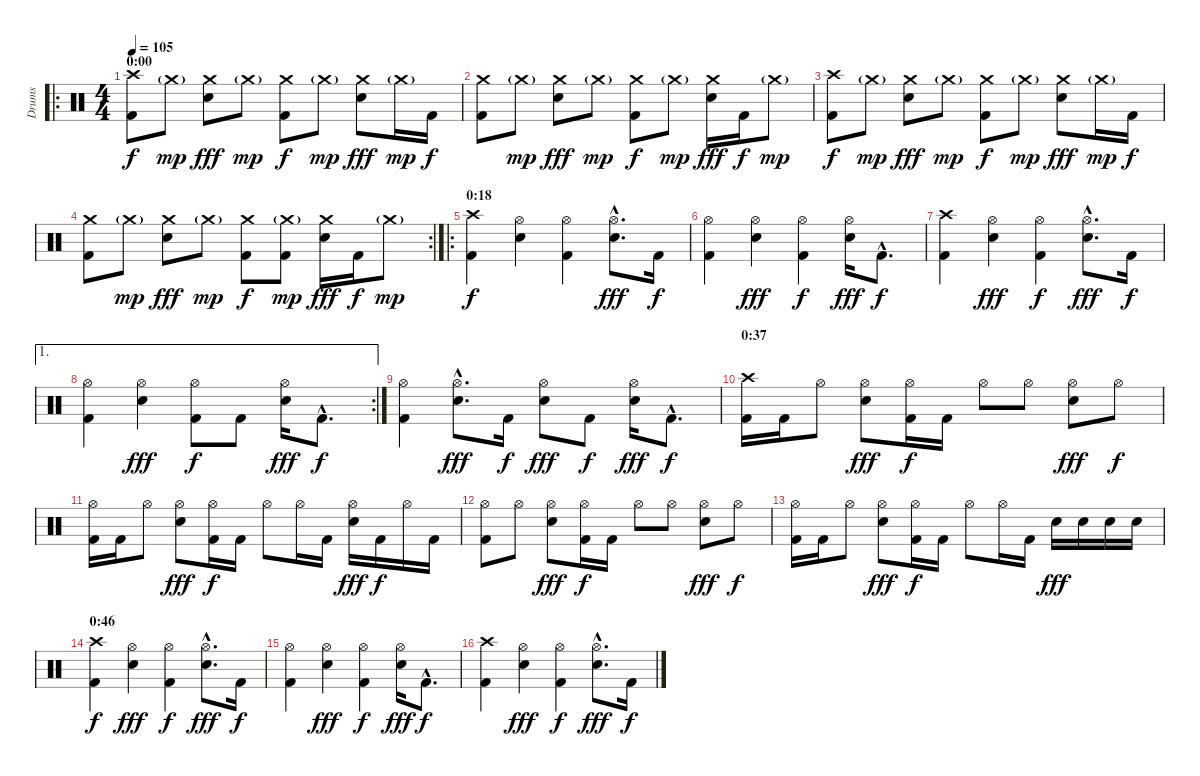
\track ("Drums" "Drums") {instrument percussion}
\staff {score}
\articulation defaults
\ro
\ts (4 4)
\section ("" "0:00")
\tempo 105
\clef neutral
\ks c
("Crash high (hit)" "Kick (hit) 2").8{dy f} "Crash medium (hit)"{g}.8{dy mp} ("Crash medium (hit)" "Snare (hit) 2").8{dy fff} "Crash medium (hit)"{g}.8{dy mp} ("Crash medium (hit)" "Kick (hit) 2").8{dy f} "Crash medium (hit)"{g}.8{dy mp} ("Crash medium (hit)" "Snare (hit) 2").8{dy fff} "Crash medium (hit)"{g}.16{dy mp} "Kick (hit) 2".16{dy f} |
("Crash medium (hit)" "Kick (hit) 2").8 "Crash medium (hit)"{g}.8{dy mp} ("Crash medium (hit)" "Snare (hit) 2").8{dy fff} "Crash medium (hit)"{g}.8{dy mp} ("Crash medium (hit)" "Kick (hit) 2").8{dy f} "Crash medium (hit)"{g}.8{dy mp} ("Crash medium (hit)" "Snare (hit) 2").16{dy fff} "Kick (hit) 2".16{dy f} "Crash medium (hit)"{g}.8{dy mp} |
("Crash high (hit)" "Kick (hit) 2").8{dy f} "Crash medium (hit)"{g}.8{dy mp} ("Crash medium (hit)" "Snare (hit) 2").8{dy fff} "Crash medium (hit)"{g}.8{dy mp} ("Crash medium (hit)" "Kick (hit) 2").8{dy f} "Crash medium (hit)"{g}.8{dy mp} ("Crash medium (hit)" "Snare (hit) 2").8{dy fff} "Crash medium (hit)"{g}.16{dy mp} "Kick (hit) 2".16{dy f} |
\rc 2
("Crash medium (hit)" "Kick (hit) 2").8 "Crash medium (hit)"{g}.8{dy mp} ("Crash medium (hit)" "Snare (hit) 2").8{dy fff} "Crash medium (hit)"{g}.8{dy mp} ("Crash medium (hit)" "Kick (hit) 2").8{dy f} ("Crash medium (hit)"{g} "Kick (hit) 2").8{dy mp} ("Crash medium (hit)" "Snare (hit) 2").16{dy fff} "Kick (hit) 2".16{dy f} "Crash medium (hit)"{g}.8{dy mp} |
\ro
\section ("" "0:18")
("Crash high (hit)" "Kick (hit) 2").4{dy f} ("Hi-Hat (open)" "Snare (hit) 2").4 ("Hi-Hat (open)" "Kick (hit) 2").4 ("Hi-Hat (open)"{hac} "Snare (hit) 2"{hac}).8{d dy fff} "Kick (hit) 2".16{dy f} |
("Hi-Hat (open)" "Kick (hit) 2").4 ("Hi-Hat (open)" "Snare (hit) 2").4{dy fff} ("Hi-Hat (open)" "Kick (hit) 2").4{dy f} ("Hi-Hat (open)" "Snare (hit) 2").16{dy fff} "Kick (hit) 2"{hac}.8{d dy f} |
("Crash high (hit)" "Kick (hit) 2").4 ("Hi-Hat (open)" "Snare (hit) 2").4{dy fff} ("Hi-Hat (open)" "Kick (hit) 2").4{dy f} ("Hi-Hat (open)"{hac} "Snare (hit) 2"{hac}).8{d dy fff} "Kick (hit) 2".16{dy f} |
\ae 1
\rc 2
("Hi-Hat (open)" "Kick (hit) 2").4 ("Hi-Hat (open)" "Snare (hit) 2").4{dy fff} ("Hi-Hat (open)" "Kick (hit) 2").8{dy f} "Kick (hit) 2".8 ("Hi-Hat (open)" "Snare (hit) 2").16{dy fff} "Kick (hit) 2"{hac}.8{d dy f} |
("Hi-Hat (open)" "Kick (hit) 2").4 ("Hi-Hat (open)"{hac} "Snare (hit) 2"{hac}).8{d dy fff} "Kick (hit) 2".16{dy f} ("Hi-Hat (open)" "Snare (hit) 2").8{dy fff} "Kick (hit) 2".8{dy f} ("Hi-Hat (open)" "Snare (hit) 2").16{dy fff} "Kick (hit) 2"{hac}.8{d dy f} |
\section ("" "0:37")
("Crash high (hit)" "Kick (hit) 2").16 "Kick (hit) 2".16 "Hi-Hat (open)".8 ("Hi-Hat (open)" "Snare (hit) 2").8{dy fff} ("Hi-Hat (open)" "Kick (hit) 2").16{dy f} "Kick (hit) 2".16 "Hi-Hat (open)".8 "Hi-Hat (open)".8 ("Hi-Hat (open)" "Snare (hit) 2").8{dy fff} "Hi-Hat (open)".8{dy f} |
("Hi-Hat (open)" "Kick (hit) 2").16 "Kick (hit) 2".16 "Hi-Hat (open)".8 ("Hi-Hat (open)" "Snare (hit) 2").8{dy fff} ("Hi-Hat (open)" "Kick (hit) 2").16{dy f} "Kick (hit) 2".16 "Hi-Hat (open)".8 "Hi-Hat (open)".16 "Kick (hit) 2".16 ("Hi-Hat (open)" "Snare (hit) 2").16{dy fff} "Kick (hit) 2".16{dy f} "Hi-Hat (open)".16 "Kick (hit) 2".16 |
("Hi-Hat (open)" "Kick (hit) 2").8 "Hi-Hat (open)".8 ("Hi-Hat (open)" "Snare (hit) 2").8{dy fff} ("Hi-Hat (open)" "Kick (hit) 2").16{dy f} "Kick (hit) 2".16 "Hi-Hat (open)".8 "Hi-Hat (open)".8 ("Hi-Hat (open)" "Snare (hit) 2").8{dy fff} "Hi-Hat (open)".8{dy f} |
("Hi-Hat (open)" "Kick (hit) 2").16 "Kick (hit) 2".16 "Hi-Hat (open)".8 ("Hi-Hat (open)" "Snare (hit) 2").8{dy fff} ("Hi-Hat (open)" "Kick (hit) 2").16{dy f} "Kick (hit) 2".16 "Hi-Hat (open)".8 "Hi-Hat (open)".16 "Kick (hit) 2".16 "Snare (hit) 2".16{dy fff} "Snare (hit) 2".16 "Snare (hit) 2".16 "Snare (hit) 2".16 |
\section ("" "0:46")
("Crash high (hit)" "Kick (hit) 2").4{dy f} ("Hi-Hat (open)" "Snare (hit) 2").4{dy fff} ("Hi-Hat (open)" "Kick (hit) 2").4{dy f} ("Hi-Hat (open)"{hac} "Snare (hit) 2"{hac}).8{d dy fff} "Kick (hit) 2".16{dy f} |
("Hi-Hat (open)" "Kick (hit) 2").4 ("Hi-Hat (open)" "Snare (hit) 2").4{dy fff} ("Hi-Hat (open)" "Kick (hit) 2").4{dy f} ("Hi-Hat (open)" "Snare (hit) 2").16{dy fff} "Kick (hit) 2"{hac}.8{d dy f} |
("Crash high (hit)" "Kick (hit) 2").4 ("Hi-Hat (open)" "Snare (hit) 2").4{dy fff} ("Hi-Hat (open)" "Kick (hit) 2").4{dy f} ("Hi-Hat (open)"{hac} "Snare (hit) 2"{hac}).8{d dy fff} "Kick (hit) 2".16{dy f}
